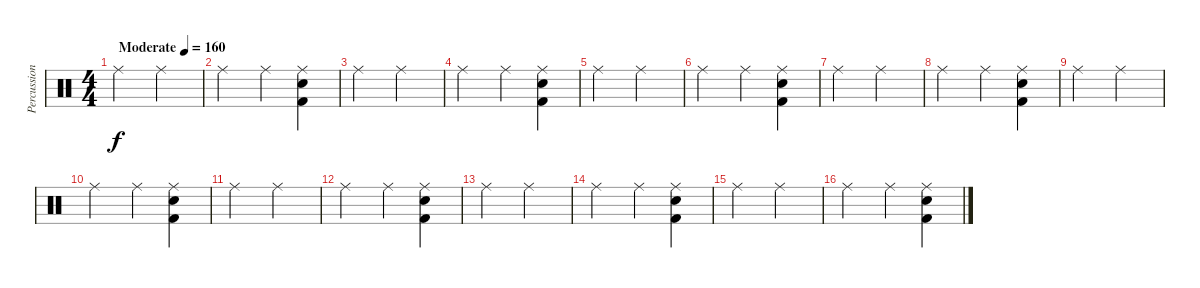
\track ("Percussion" "Percussion") {instrument percussion}
\staff {score}
\articulation defaults
\ts (4 4)
\tempo (160 "Moderate")
\clef neutral
\ks c "Ride (middle)".2{dy f} "Ride (middle)".2
|
"Ride (middle)".2 "Ride (middle)".4 ("Ride (middle)" "Snare (hit) 2" "Kick (hit) 2").4 |
"Ride (middle)".2 "Ride (middle)".2 |
"Ride (middle)".2 "Ride (middle)".4 ("Ride (middle)" "Snare (hit) 2" "Kick (hit) 2").4 |
"Ride (middle)".2 "Ride (middle)".2 |
"Ride (middle)".2 "Ride (middle)".4 ("Ride (middle)" "Snare (hit) 2" "Kick (hit) 2").4 |
"Ride (middle)".2 "Ride (middle)".2 |
"Ride (middle)".2 "Ride (middle)".4 ("Ride (middle)" "Snare (hit) 2" "Kick (hit) 2").4 |
"Ride (middle)".2 "Ride (middle)".2 |
"Ride (middle)".2 "Ride (middle)".4 ("Ride (middle)" "Snare (hit) 2" "Kick (hit) 2").4 |
"Ride (middle)".2 "Ride (middle)".2 |
"Ride (middle)".2 "Ride (middle)".4 ("Ride (middle)" "Snare (hit) 2" "Kick (hit) 2").4 |
"Ride (middle)".2 "Ride (middle)".2 |
"Ride (middle)".2 "Ride (middle)".4 ("Ride (middle)" "Snare (hit) 2" "Kick (hit) 2").4 |
"Ride (middle)".2 "Ride (middle)".2 |
"Ride (middle)".2 "Ride (middle)".4 ("Ride (middle)" "Snare (hit) 2" "Kick (hit) 2").4
